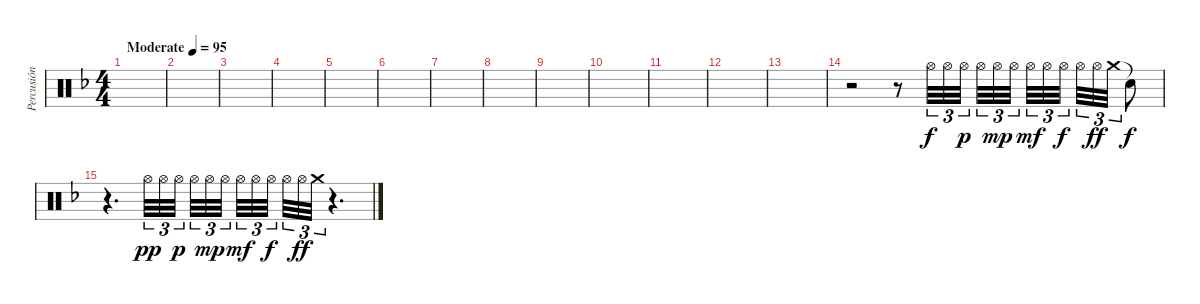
\track ("Percusión" "Percusión") {instrument percussion}
\staff {score}
\articulation defaults
\ts (4 4)
\tempo (95 "Moderate")
\clef neutral
\ks f
|
|
|
|
|
|
|
|
|
|
|
|
|
r.2 r.8 "Hi-Hat (open)".32{tu (3 2)} "Hi-Hat (open)".32{tu (3 2)} "Hi-Hat (open)".32{tu (3 2) dy p beam splitsecondary} "Hi-Hat (open)".32{tu (3 2)} "Hi-Hat (open)".32{tu (3 2) dy mp} "Hi-Hat (open)".32{tu (3 2)} "Hi-Hat (open)".32{tu (3 2) dy mf} "Hi-Hat (open)".32{tu (3 2)} "Hi-Hat (open)".32{tu (3 2) dy f beam splitsecondary} "Hi-Hat (open)".32{tu (3 2)} "Hi-Hat (open)".32{tu (3 2) dy ff} "Crash medium (hit)".32{tu (3 2)} "Snare (hit)"{t}.8{dy f} |
r.4{d} "Hi-Hat (open)".32{tu (3 2) dy pp} "Hi-Hat (open)".32{tu (3 2)} "Hi-Hat (open)".32{tu (3 2) dy p beam splitsecondary} "Hi-Hat (open)".32{tu (3 2)} "Hi-Hat (open)".32{tu (3 2) dy mp} "Hi-Hat (open)".32{tu (3 2)} "Hi-Hat (open)".32{tu (3 2) dy mf} "Hi-Hat (open)".32{tu (3 2)} "Hi-Hat (open)".32{tu (3 2) dy f beam splitsecondary} "Hi-Hat (open)".32{tu (3 2)} "Hi-Hat (open)".32{tu (3 2) dy ff} "Crash medium (hit)".32{tu (3 2)} r.4{d}
